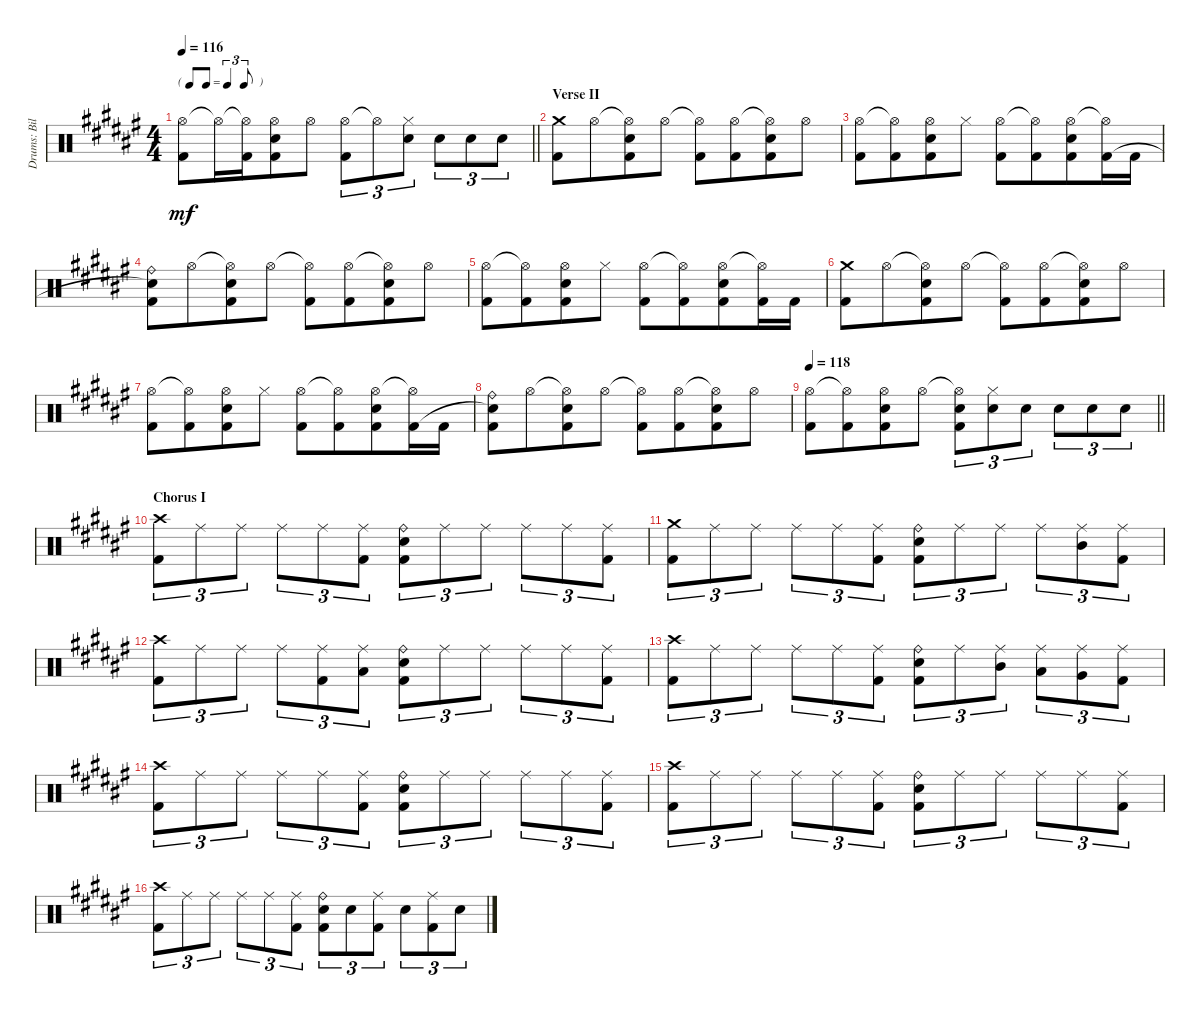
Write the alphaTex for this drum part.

\track ("Drums: Bill" "Drums: Bil") {instrument percussion}
\staff {score}
\articulation defaults
\ts (4 4)
\tf triplet8th
\tempo 116
\clef neutral
\barLineRight lightlight
\ks f#
("Hi-Hat (open)" "Kick (hit) 2").8{dy mf} "Hi-Hat (open)"{t}.16 ("Hi-Hat (open)"{t} "Kick (hit) 2").16{beam merge} ("Hi-Hat (open)" "Snare (hit) 2" "Kick (hit) 2").8 "Hi-Hat (open)".8 ("Hi-Hat (open)" "Kick (hit) 2").8{tu (3 2)} "Hi-Hat (open)"{t}.8{tu (3 2)} ("Hi-Hat (closed)" "Electric Snare (hit)").8{tu (3 2)} "Electric Snare (hit)".8{tu (3 2)} "Electric Snare (hit)".8{tu (3 2)} "Electric Snare (hit)".8{tu (3 2)} |
\section ("" "Verse II")
("Crash medium (hit)" "Kick (hit) 2").8 "Hi-Hat (open)".8{beam merge} ("Hi-Hat (open)"{t} "Electric Snare (hit)" "Kick (hit) 2").8 "Hi-Hat (open)".8 ("Hi-Hat (open)"{t} "Kick (hit) 2").8 ("Hi-Hat (open)" "Kick (hit) 2").8{beam merge} ("Hi-Hat (open)"{t} "Electric Snare (hit)" "Kick (hit) 2").8 "Hi-Hat (open)".8 |
("Hi-Hat (open)" "Kick (hit) 2").8 ("Hi-Hat (open)"{t} "Kick (hit) 2").8{beam merge} ("Hi-Hat (open)" "Snare (hit) 2" "Kick (hit) 2").8 "Hi-Hat (closed)".8 ("Hi-Hat (open)" "Kick (hit) 2").8 ("Hi-Hat (open)"{t} "Kick (hit) 2").8{beam merge} ("Hi-Hat (open)" "Electric Snare (hit)" "Kick (hit) 2").8 ("Hi-Hat (open)"{t} "Kick (hit) 2").16 "Kick (hit) 2".16 |
("Ride (bell)" "Snare (hit)"{t} "Kick (hit) 2").8 "Hi-Hat (open)".8{beam merge} ("Hi-Hat (open)"{t} "Electric Snare (hit)" "Kick (hit) 2").8 "Hi-Hat (open)".8 ("Hi-Hat (open)"{t} "Kick (hit) 2").8 ("Hi-Hat (open)" "Kick (hit) 2").8{beam merge} ("Hi-Hat (open)"{t} "Electric Snare (hit)" "Kick (hit) 2").8 "Hi-Hat (open)".8 |
("Hi-Hat (open)" "Kick (hit) 2").8 ("Hi-Hat (open)"{t} "Kick (hit) 2").8{beam merge} ("Hi-Hat (open)" "Snare (hit) 2" "Kick (hit) 2").8 "Hi-Hat (closed)".8 ("Hi-Hat (open)" "Kick (hit) 2").8 ("Hi-Hat (open)"{t} "Kick (hit) 2").8{beam merge} ("Hi-Hat (open)" "Electric Snare (hit)" "Kick (hit) 2").8 ("Hi-Hat (open)"{t} "Kick (hit) 2").16 "Kick (hit) 2".16 |
("Crash medium (hit)" "Kick (hit) 2").8 "Hi-Hat (open)".8{beam merge} ("Hi-Hat (open)"{t} "Electric Snare (hit)" "Kick (hit) 2").8 "Hi-Hat (open)".8 ("Hi-Hat (open)"{t} "Kick (hit) 2").8 ("Hi-Hat (open)" "Kick (hit) 2").8{beam merge} ("Hi-Hat (open)"{t} "Electric Snare (hit)" "Kick (hit) 2").8 "Hi-Hat (open)".8 |
("Hi-Hat (open)" "Kick (hit) 2").8 ("Hi-Hat (open)"{t} "Kick (hit) 2").8{beam merge} ("Hi-Hat (open)" "Snare (hit) 2" "Kick (hit) 2").8 "Hi-Hat (closed)".8 ("Hi-Hat (open)" "Kick (hit) 2").8 ("Hi-Hat (open)"{t} "Kick (hit) 2").8{beam merge} ("Hi-Hat (open)" "Electric Snare (hit)" "Kick (hit) 2").8 ("Hi-Hat (open)"{t} "Kick (hit) 2").16 "Kick (hit) 2".16 |
("Ride (bell)" "Snare (hit)"{t} "Kick (hit) 2").8 "Hi-Hat (open)".8{beam merge} ("Hi-Hat (open)"{t} "Electric Snare (hit)" "Kick (hit) 2").8 "Hi-Hat (open)".8 ("Hi-Hat (open)"{t} "Kick (hit) 2").8 ("Hi-Hat (open)" "Kick (hit) 2").8{beam merge} ("Hi-Hat (open)"{t} "Electric Snare (hit)" "Kick (hit) 2").8 "Hi-Hat (open)".8 |
\tempo 118
\barLineRight lightlight
("Hi-Hat (open)" "Kick (hit) 2").8 ("Hi-Hat (open)"{t} "Kick (hit) 2").8{beam merge} ("Hi-Hat (open)" "Electric Snare (hit)" "Kick (hit) 2").8 "Hi-Hat (open)".8 ("Hi-Hat (open)"{t} "Electric Snare (hit)" "Kick (hit) 2").8{tu (3 2)} ("Hi-Hat (closed)" "Electric Snare (hit)").8{tu (3 2)} "Electric Snare (hit)".8{tu (3 2)} "Electric Snare (hit)".8{tu (3 2)} "Electric Snare (hit)".8{tu (3 2)} "Electric Snare (hit)".8{tu (3 2)} |
\section ("" "Chorus I")
("Crash high (hit)" "Kick (hit) 2").8{tu (3 2)} "Ride (middle)".8{tu (3 2)} "Ride (middle)".8{tu (3 2)} "Ride (middle)".8{tu (3 2)} "Ride (middle)".8{tu (3 2)} ("Ride (middle)" "Kick (hit) 2").8{tu (3 2)} ("Ride (bell)" "Electric Snare (hit)" "Kick (hit) 2").8{tu (3 2)} "Ride (middle)".8{tu (3 2)} "Ride (middle)".8{tu (3 2)} "Ride (middle)".8{tu (3 2)} "Ride (middle)".8{tu (3 2)} ("Ride (middle)" "Kick (hit) 2").8{tu (3 2)} |
("Crash medium (hit)" "Kick (hit) 2").8{tu (3 2)} "Ride (middle)".8{tu (3 2)} "Ride (middle)".8{tu (3 2)} "Ride (middle)".8{tu (3 2)} "Ride (middle)".8{tu (3 2)} ("Ride (middle)" "Kick (hit) 2").8{tu (3 2)} ("Ride (bell)" "Electric Snare (hit)" "Kick (hit) 2").8{tu (3 2)} "Ride (middle)".8{tu (3 2)} "Ride (middle)".8{tu (3 2)} "Ride (middle)".8{tu (3 2)} ("Ride (middle)" "Mid Tom (hit)").8{tu (3 2)} ("Ride (middle)" "Kick (hit) 2").8{tu (3 2)} |
("Crash high (hit)" "Kick (hit) 2").8{tu (3 2)} "Ride (middle)".8{tu (3 2)} "Ride (middle)".8{tu (3 2)} "Ride (middle)".8{tu (3 2)} ("Ride (middle)" "Kick (hit) 2").8{tu (3 2)} ("Ride (middle)" "Low Tom (hit)").8{tu (3 2)} ("Ride (bell)" "Electric Snare (hit)" "Kick (hit) 2").8{tu (3 2)} "Ride (middle)".8{tu (3 2)} "Ride (middle)".8{tu (3 2)} "Ride (middle)".8{tu (3 2)} "Ride (middle)".8{tu (3 2)} ("Ride (middle)" "Kick (hit) 2").8{tu (3 2)} |
("Crash high (hit)" "Kick (hit) 2").8{tu (3 2)} "Ride (middle)".8{tu (3 2)} "Ride (middle)".8{tu (3 2)} "Ride (middle)".8{tu (3 2)} "Ride (middle)".8{tu (3 2)} ("Ride (middle)" "Kick (hit) 2").8{tu (3 2)} ("Ride (bell)" "Electric Snare (hit)" "Kick (hit) 2").8{tu (3 2)} "Ride (middle)".8{tu (3 2)} ("Ride (middle)" "Mid Tom (hit)").8{tu (3 2)} ("Ride (middle)" "Low Tom (hit)").8{tu (3 2)} ("Ride (middle)" "Very Low Tom (hit)").8{tu (3 2)} ("Ride (middle)" "Kick (hit) 2").8{tu (3 2)} |
("Crash high (hit)" "Kick (hit) 2").8{tu (3 2)} "Ride (middle)".8{tu (3 2)} "Ride (middle)".8{tu (3 2)} "Ride (middle)".8{tu (3 2)} "Ride (middle)".8{tu (3 2)} ("Ride (middle)" "Kick (hit) 2").8{tu (3 2)} ("Ride (bell)" "Electric Snare (hit)" "Kick (hit) 2").8{tu (3 2)} "Ride (middle)".8{tu (3 2)} "Ride (middle)".8{tu (3 2)} "Ride (middle)".8{tu (3 2)} "Ride (middle)".8{tu (3 2)} ("Ride (middle)" "Kick (hit) 2").8{tu (3 2)} |
("Crash high (hit)" "Kick (hit) 2").8{tu (3 2)} "Ride (middle)".8{tu (3 2)} "Ride (middle)".8{tu (3 2)} "Ride (middle)".8{tu (3 2)} "Ride (middle)".8{tu (3 2)} ("Ride (middle)" "Kick (hit) 2").8{tu (3 2)} ("Ride (bell)" "Electric Snare (hit)" "Kick (hit) 2").8{tu (3 2)} "Ride (middle)".8{tu (3 2)} "Ride (middle)".8{tu (3 2)} "Ride (middle)".8{tu (3 2)} "Ride (middle)".8{tu (3 2)} ("Ride (middle)" "Kick (hit) 2").8{tu (3 2)} |
("Crash high (hit)" "Kick (hit) 2").8{tu (3 2)} "Ride (middle)".8{tu (3 2)} "Ride (middle)".8{tu (3 2)} "Ride (middle)".8{tu (3 2)} "Ride (middle)".8{tu (3 2)} ("Ride (middle)" "Kick (hit) 2").8{tu (3 2)} ("Ride (bell)" "Electric Snare (hit)" "Kick (hit) 2").8{tu (3 2)} "Electric Snare (hit)".8{tu (3 2)} ("Ride (middle)" "Kick (hit) 2").8{tu (3 2)} "Electric Snare (hit)".8{tu (3 2)} ("Ride (middle)" "Kick (hit) 2").8{tu (3 2)} "Electric Snare (hit)".8{tu (3 2)}
